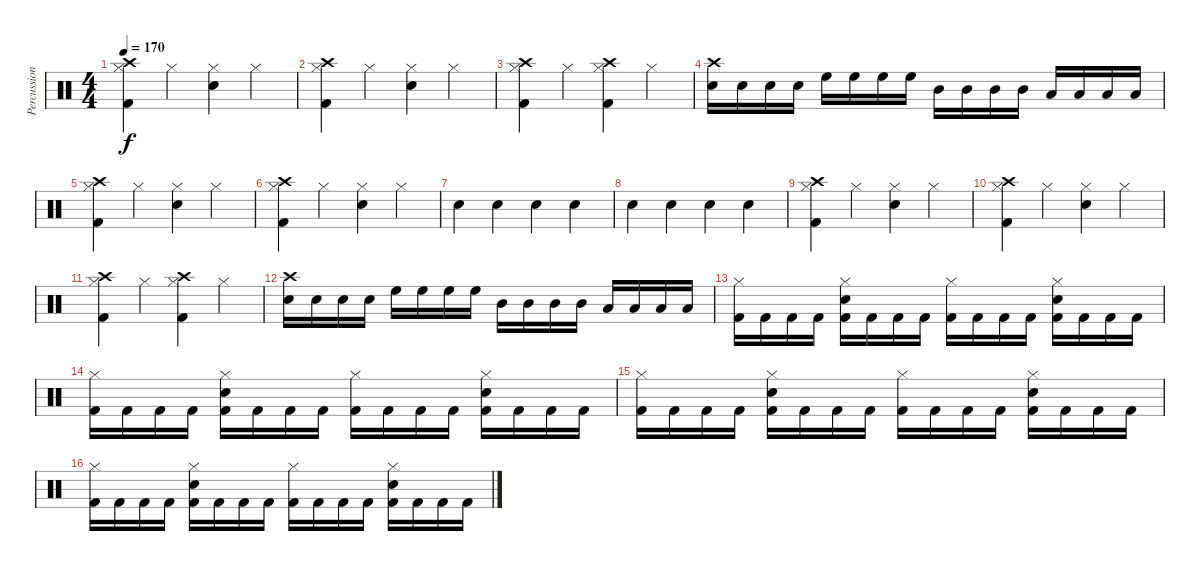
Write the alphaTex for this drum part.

\track ("Percussion" "Percussion") {instrument percussion}
\staff {score}
\articulation defaults
\ts (4 4)
\tempo 170
\clef neutral
\ks c
("Hi-Hat (closed)" "Kick (hit) 2" "Crash high (hit)").4{dy f} "Hi-Hat (closed)".4 ("Hi-Hat (closed)" "Electric Snare (hit)").4 "Hi-Hat (closed)".4 |
("Hi-Hat (closed)" "Kick (hit) 2" "Crash high (hit)").4 "Hi-Hat (closed)".4 ("Hi-Hat (closed)" "Electric Snare (hit)").4 "Hi-Hat (closed)".4 |
("Hi-Hat (closed)" "Kick (hit) 2" "Crash high (hit)").4 "Hi-Hat (closed)".4 ("Hi-Hat (closed)" "Kick (hit) 2" "Crash high (hit)").4 "Hi-Hat (closed)".4 |
("Electric Snare (hit)" "Crash high (hit)").16 "Electric Snare (hit)".16 "Electric Snare (hit)".16 "Electric Snare (hit)".16 "High Floor Tom (hit)".16 "High Floor Tom (hit)".16 "High Floor Tom (hit)".16 "High Floor Tom (hit)".16 "Mid Tom (hit)".16 "Mid Tom (hit)".16 "Mid Tom (hit)".16 "Mid Tom (hit)".16 "Low Tom (hit)".16 "Low Tom (hit)".16 "Low Tom (hit)".16 "Low Tom (hit)".16 |
("Hi-Hat (closed)" "Kick (hit) 2" "Crash high (hit)").4 "Hi-Hat (closed)".4 ("Hi-Hat (closed)" "Electric Snare (hit)").4 "Hi-Hat (closed)".4 |
("Hi-Hat (closed)" "Kick (hit) 2" "Crash high (hit)").4 "Hi-Hat (closed)".4 ("Hi-Hat (closed)" "Electric Snare (hit)").4 "Hi-Hat (closed)".4 |
"Snare (hit) 2".4 "Snare (hit) 2".4 "Snare (hit) 2".4 "Electric Snare (hit)".4 |
"Snare (hit) 2".4 "Snare (hit) 2".4 "Snare (hit) 2".4 "Electric Snare (hit)".4 |
("Hi-Hat (closed)" "Kick (hit) 2" "Crash high (hit)").4 "Hi-Hat (closed)".4 ("Hi-Hat (closed)" "Electric Snare (hit)").4 "Hi-Hat (closed)".4 |
("Hi-Hat (closed)" "Kick (hit) 2" "Crash high (hit)").4 "Hi-Hat (closed)".4 ("Hi-Hat (closed)" "Electric Snare (hit)").4 "Hi-Hat (closed)".4 |
("Hi-Hat (closed)" "Kick (hit) 2" "Crash high (hit)").4 "Hi-Hat (closed)".4 ("Hi-Hat (closed)" "Kick (hit) 2" "Crash high (hit)").4 "Hi-Hat (closed)".4 |
("Electric Snare (hit)" "Crash high (hit)").16 "Electric Snare (hit)".16 "Electric Snare (hit)".16 "Electric Snare (hit)".16 "High Floor Tom (hit)".16 "High Floor Tom (hit)".16 "High Floor Tom (hit)".16 "High Floor Tom (hit)".16 "Mid Tom (hit)".16 "Mid Tom (hit)".16 "Mid Tom (hit)".16 "Mid Tom (hit)".16 "Low Tom (hit)".16 "Low Tom (hit)".16 "Low Tom (hit)".16 "Low Tom (hit)".16 |
("Hi-Hat (closed)" "Kick (hit) 2").16 "Kick (hit) 2".16 "Kick (hit) 2".16 "Kick (hit) 2".16 ("Hi-Hat (closed)" "Electric Snare (hit)" "Kick (hit) 2").16 "Kick (hit) 2".16 "Kick (hit) 2".16 "Kick (hit) 2".16 ("Hi-Hat (closed)" "Kick (hit) 2").16 "Kick (hit) 2".16 "Kick (hit) 2".16 "Kick (hit) 2".16 ("Hi-Hat (closed)" "Electric Snare (hit)" "Kick (hit) 2").16 "Kick (hit) 2".16 "Kick (hit) 2".16 "Kick (hit) 2".16 |
("Hi-Hat (closed)" "Kick (hit) 2").16 "Kick (hit) 2".16 "Kick (hit) 2".16 "Kick (hit) 2".16 ("Hi-Hat (closed)" "Electric Snare (hit)" "Kick (hit) 2").16 "Kick (hit) 2".16 "Kick (hit) 2".16 "Kick (hit) 2".16 ("Hi-Hat (closed)" "Kick (hit) 2").16 "Kick (hit) 2".16 "Kick (hit) 2".16 "Kick (hit) 2".16 ("Hi-Hat (closed)" "Electric Snare (hit)" "Kick (hit) 2").16 "Kick (hit) 2".16 "Kick (hit) 2".16 "Kick (hit) 2".16 |
("Hi-Hat (closed)" "Kick (hit) 2").16 "Kick (hit) 2".16 "Kick (hit) 2".16 "Kick (hit) 2".16 ("Hi-Hat (closed)" "Electric Snare (hit)" "Kick (hit) 2").16 "Kick (hit) 2".16 "Kick (hit) 2".16 "Kick (hit) 2".16 ("Hi-Hat (closed)" "Kick (hit) 2").16 "Kick (hit) 2".16 "Kick (hit) 2".16 "Kick (hit) 2".16 ("Hi-Hat (closed)" "Electric Snare (hit)" "Kick (hit) 2").16 "Kick (hit) 2".16 "Kick (hit) 2".16 "Kick (hit) 2".16 |
("Hi-Hat (closed)" "Kick (hit) 2").16 "Kick (hit) 2".16 "Kick (hit) 2".16 "Kick (hit) 2".16 ("Hi-Hat (closed)" "Electric Snare (hit)" "Kick (hit) 2").16 "Kick (hit) 2".16 "Kick (hit) 2".16 "Kick (hit) 2".16 ("Hi-Hat (closed)" "Kick (hit) 2").16 "Kick (hit) 2".16 "Kick (hit) 2".16 "Kick (hit) 2".16 ("Hi-Hat (closed)" "Electric Snare (hit)" "Kick (hit) 2").16 "Kick (hit) 2".16 "Kick (hit) 2".16 "Kick (hit) 2".16
